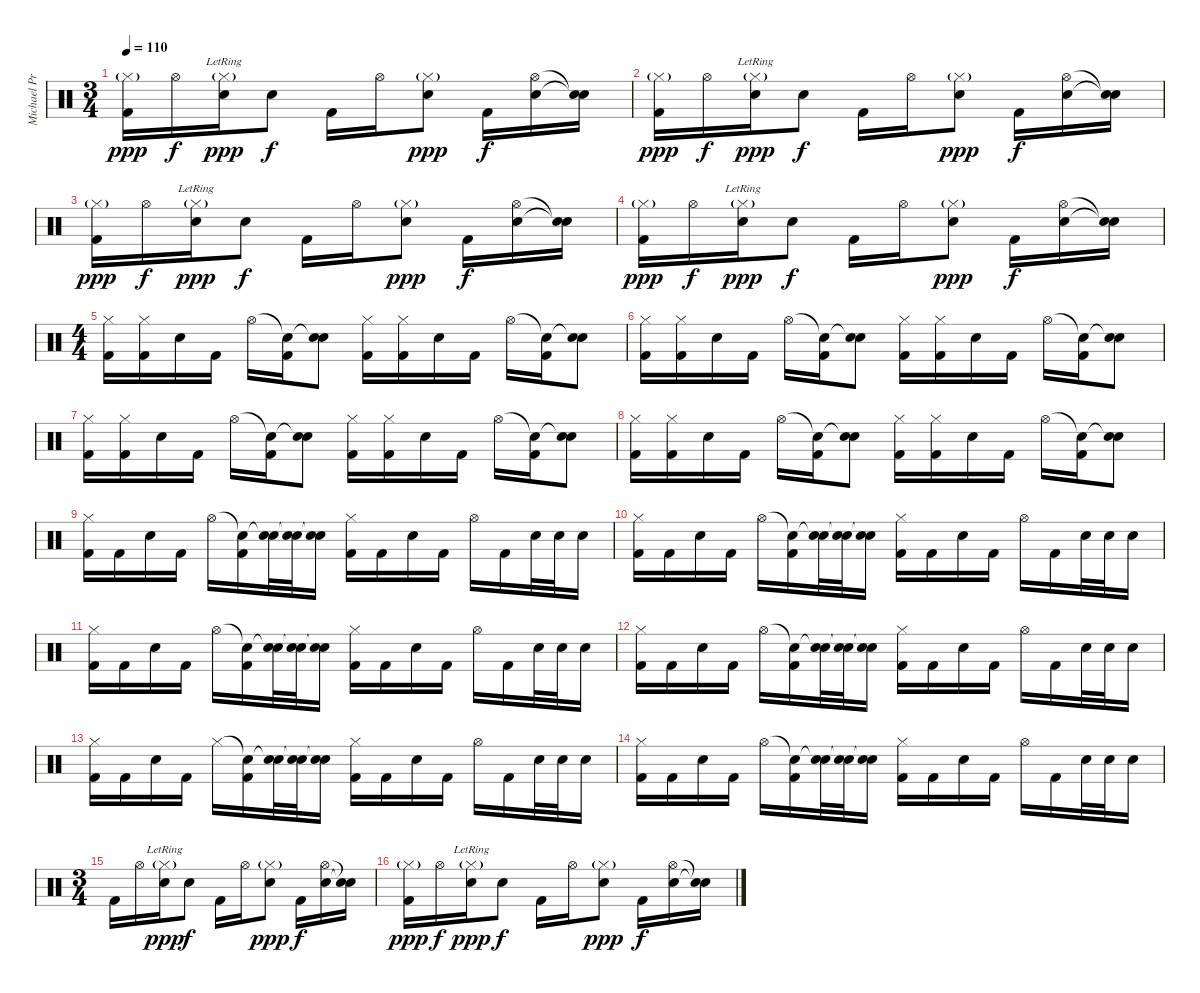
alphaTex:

\track ("Michael Prain - Drums" "Michael Pr") {instrument percussion}
\staff {score}
\articulation defaults
\ts (3 4)
\tempo 110
\clef neutral
\ks c
("Hi-Hat (closed)"{g} "Kick (hit) 2").16{dy ppp} "Hi-Hat (open)".16{dy f} ("Hi-Hat (closed)"{g lr} "Electric Snare (hit)").16{dy ppp} "Electric Snare (hit)".8{dy f} "Kick (hit) 2".16 "Hi-Hat (open)".16 ("Hi-Hat (closed)"{g} "Electric Snare (hit)").8{dy ppp} "Kick (hit) 2".16{dy f} ("Hi-Hat (open)" "Electric Snare (hit)").16 ("Snare (hit)"{t} "Snare (hit)"{t}).16 |
("Hi-Hat (closed)"{g} "Kick (hit) 2").16{dy ppp} "Hi-Hat (open)".16{dy f} ("Hi-Hat (closed)"{g lr} "Electric Snare (hit)").16{dy ppp} "Electric Snare (hit)".8{dy f} "Kick (hit) 2".16 "Hi-Hat (open)".16 ("Hi-Hat (closed)"{g} "Electric Snare (hit)").8{dy ppp} "Kick (hit) 2".16{dy f} ("Hi-Hat (open)" "Electric Snare (hit)").16 ("Snare (hit)"{t} "Snare (hit)"{t}).16 |
("Hi-Hat (closed)"{g} "Kick (hit) 2").16{dy ppp} "Hi-Hat (open)".16{dy f} ("Hi-Hat (closed)"{g lr} "Electric Snare (hit)").16{dy ppp} "Electric Snare (hit)".8{dy f} "Kick (hit) 2".16 "Hi-Hat (open)".16 ("Hi-Hat (closed)"{g} "Electric Snare (hit)").8{dy ppp} "Kick (hit) 2".16{dy f} ("Hi-Hat (open)" "Electric Snare (hit)").16 ("Snare (hit)"{t} "Snare (hit)"{t}).16 |
("Hi-Hat (closed)"{g} "Kick (hit) 2").16{dy ppp} "Hi-Hat (open)".16{dy f} ("Hi-Hat (closed)"{g lr} "Electric Snare (hit)").16{dy ppp} "Electric Snare (hit)".8{dy f} "Kick (hit) 2".16 "Hi-Hat (open)".16 ("Hi-Hat (closed)"{g} "Electric Snare (hit)").8{dy ppp} "Kick (hit) 2".16{dy f} ("Hi-Hat (open)" "Electric Snare (hit)").16 ("Snare (hit)"{t} "Snare (hit)"{t}).16 |
\ts (4 4)
("Hi-Hat (closed)" "Kick (hit) 2").16 ("Hi-Hat (closed)" "Kick (hit) 2").16 "Electric Snare (hit)".16 "Kick (hit) 2".16 "Hi-Hat (open)".16 ("Snare (hit)"{t} "Kick (hit) 2").16 ("Snare (hit)"{t} "Electric Snare (hit)").8 ("Hi-Hat (closed)" "Kick (hit) 2").16 ("Hi-Hat (closed)" "Kick (hit) 2").16 "Electric Snare (hit)".16 "Kick (hit) 2".16 "Hi-Hat (open)".16 ("Snare (hit)"{t} "Kick (hit) 2").16 ("Snare (hit)"{t} "Electric Snare (hit)").8 |
("Hi-Hat (closed)" "Kick (hit) 2").16 ("Hi-Hat (closed)" "Kick (hit) 2").16 "Electric Snare (hit)".16 "Kick (hit) 2".16 "Hi-Hat (open)".16 ("Snare (hit)"{t} "Kick (hit) 2").16 ("Snare (hit)"{t} "Electric Snare (hit)").8 ("Hi-Hat (closed)" "Kick (hit) 2").16 ("Hi-Hat (closed)" "Kick (hit) 2").16 "Electric Snare (hit)".16 "Kick (hit) 2".16 "Hi-Hat (open)".16 ("Snare (hit)"{t} "Kick (hit) 2").16 ("Snare (hit)"{t} "Electric Snare (hit)").8 |
("Hi-Hat (closed)" "Kick (hit) 2").16 ("Hi-Hat (closed)" "Kick (hit) 2").16 "Electric Snare (hit)".16 "Kick (hit) 2".16 "Hi-Hat (open)".16 ("Snare (hit)"{t} "Kick (hit) 2").16 ("Snare (hit)"{t} "Electric Snare (hit)").8 ("Hi-Hat (closed)" "Kick (hit) 2").16 ("Hi-Hat (closed)" "Kick (hit) 2").16 "Electric Snare (hit)".16 "Kick (hit) 2".16 "Hi-Hat (open)".16 ("Snare (hit)"{t} "Kick (hit) 2").16 ("Snare (hit)"{t} "Electric Snare (hit)").8 |
("Hi-Hat (closed)" "Kick (hit) 2").16 ("Hi-Hat (closed)" "Kick (hit) 2").16 "Electric Snare (hit)".16 "Kick (hit) 2".16 "Hi-Hat (open)".16 ("Snare (hit)"{t} "Kick (hit) 2").16 ("Snare (hit)"{t} "Electric Snare (hit)").8 ("Hi-Hat (closed)" "Kick (hit) 2").16 ("Hi-Hat (closed)" "Kick (hit) 2").16 "Electric Snare (hit)".16 "Kick (hit) 2".16 "Hi-Hat (open)".16 ("Snare (hit)"{t} "Kick (hit) 2").16 ("Snare (hit)"{t} "Electric Snare (hit)").8 |
("Hi-Hat (closed)" "Kick (hit) 2").16 "Kick (hit) 2".16 "Electric Snare (hit)".16 "Kick (hit) 2".16 "Hi-Hat (open)".16 ("Snare (hit)"{t} "Kick (hit) 2").16 ("Snare (hit)"{t} "Electric Snare (hit)").32 ("Snare (hit)"{t} "Electric Snare (hit)").32 ("Snare (hit)"{t} "Electric Snare (hit)").16 ("Hi-Hat (closed)" "Kick (hit) 2").16 "Kick (hit) 2".16 "Electric Snare (hit)".16 "Kick (hit) 2".16 "Hi-Hat (open)".16 "Kick (hit) 2".16 "Electric Snare (hit)".32 "Electric Snare (hit)".32 "Electric Snare (hit)".16 |
("Hi-Hat (closed)" "Kick (hit) 2").16 "Kick (hit) 2".16 "Electric Snare (hit)".16 "Kick (hit) 2".16 "Hi-Hat (open)".16 ("Snare (hit)"{t} "Kick (hit) 2").16 ("Snare (hit)"{t} "Electric Snare (hit)").32 ("Snare (hit)"{t} "Electric Snare (hit)").32 ("Snare (hit)"{t} "Electric Snare (hit)").16 ("Hi-Hat (closed)" "Kick (hit) 2").16 "Kick (hit) 2".16 "Electric Snare (hit)".16 "Kick (hit) 2".16 "Hi-Hat (open)".16 "Kick (hit) 2".16 "Electric Snare (hit)".32 "Electric Snare (hit)".32 "Electric Snare (hit)".16 |
("Hi-Hat (closed)" "Kick (hit) 2").16 "Kick (hit) 2".16 "Electric Snare (hit)".16 "Kick (hit) 2".16 "Hi-Hat (open)".16 ("Snare (hit)"{t} "Kick (hit) 2").16 ("Snare (hit)"{t} "Electric Snare (hit)").32 ("Snare (hit)"{t} "Electric Snare (hit)").32 ("Snare (hit)"{t} "Electric Snare (hit)").16 ("Hi-Hat (closed)" "Kick (hit) 2").16 "Kick (hit) 2".16 "Electric Snare (hit)".16 "Kick (hit) 2".16 "Hi-Hat (open)".16 "Kick (hit) 2".16 "Electric Snare (hit)".32 "Electric Snare (hit)".32 "Electric Snare (hit)".16 |
("Hi-Hat (closed)" "Kick (hit) 2").16 "Kick (hit) 2".16 "Electric Snare (hit)".16 "Kick (hit) 2".16 "Hi-Hat (open)".16 ("Snare (hit)"{t} "Kick (hit) 2").16 ("Snare (hit)"{t} "Electric Snare (hit)").32 ("Snare (hit)"{t} "Electric Snare (hit)").32 ("Snare (hit)"{t} "Electric Snare (hit)").16 ("Hi-Hat (closed)" "Kick (hit) 2").16 "Kick (hit) 2".16 "Electric Snare (hit)".16 "Kick (hit) 2".16 "Hi-Hat (open)".16 "Kick (hit) 2".16 "Electric Snare (hit)".32 "Electric Snare (hit)".32 "Electric Snare (hit)".16 |
("Hi-Hat (closed)" "Kick (hit) 2").16 "Kick (hit) 2".16 "Electric Snare (hit)".16 "Kick (hit) 2".16 "Hi-Hat (closed)".16 ("Snare (hit)"{t} "Kick (hit) 2").16 ("Snare (hit)"{t} "Electric Snare (hit)").32 ("Snare (hit)"{t} "Electric Snare (hit)").32 ("Snare (hit)"{t} "Electric Snare (hit)").16 ("Hi-Hat (closed)" "Kick (hit) 2").16 "Kick (hit) 2".16 "Electric Snare (hit)".16 "Kick (hit) 2".16 "Hi-Hat (open)".16 "Kick (hit) 2".16 "Electric Snare (hit)".32 "Electric Snare (hit)".32 "Electric Snare (hit)".16 |
("Hi-Hat (closed)" "Kick (hit) 2").16 "Kick (hit) 2".16 "Electric Snare (hit)".16 "Kick (hit) 2".16 "Hi-Hat (open)".16 ("Snare (hit)"{t} "Kick (hit) 2").16 ("Snare (hit)"{t} "Electric Snare (hit)").32 ("Snare (hit)"{t} "Electric Snare (hit)").32 ("Snare (hit)"{t} "Electric Snare (hit)").16 ("Hi-Hat (closed)" "Kick (hit) 2").16 "Kick (hit) 2".16 "Electric Snare (hit)".16 "Kick (hit) 2".16 "Hi-Hat (open)".16 "Kick (hit) 2".16 "Electric Snare (hit)".32 "Electric Snare (hit)".32 "Electric Snare (hit)".16 |
\ts (3 4)
"Kick (hit) 2".16 "Hi-Hat (open)".16 ("Hi-Hat (closed)"{g lr} "Electric Snare (hit)").16{dy ppp} "Electric Snare (hit)".8{dy f} "Kick (hit) 2".16 "Hi-Hat (open)".16 ("Hi-Hat (closed)"{g} "Electric Snare (hit)").8{dy ppp} "Kick (hit) 2".16{dy f} ("Hi-Hat (open)" "Electric Snare (hit)").16 ("Snare (hit)"{t} "Snare (hit)"{t}).16 |
("Hi-Hat (closed)"{g} "Kick (hit) 2").16{dy ppp} "Hi-Hat (open)".16{dy f} ("Hi-Hat (closed)"{g lr} "Electric Snare (hit)").16{dy ppp} "Electric Snare (hit)".8{dy f} "Kick (hit) 2".16 "Hi-Hat (open)".16 ("Hi-Hat (closed)"{g} "Electric Snare (hit)").8{dy ppp} "Kick (hit) 2".16{dy f} ("Hi-Hat (open)" "Electric Snare (hit)").16 ("Snare (hit)"{t} "Snare (hit)"{t}).16
